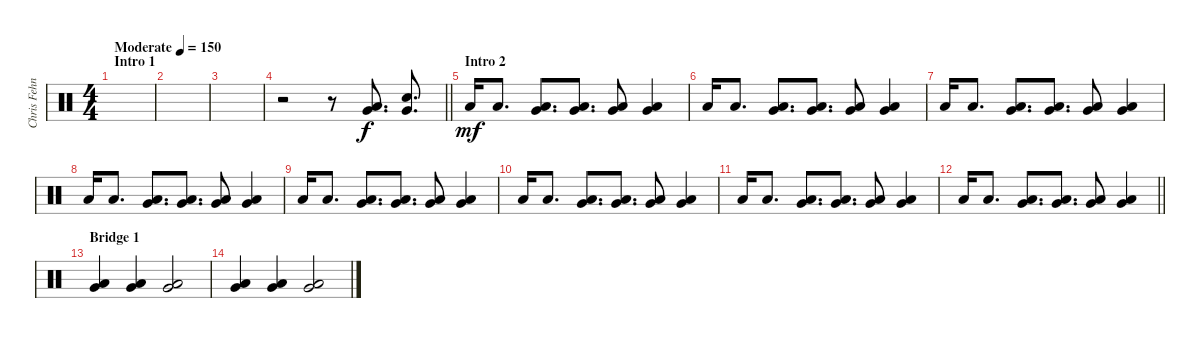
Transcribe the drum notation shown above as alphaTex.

\track ("Chris Fehn" "Chris Fehn") {instrument percussion}
\staff {score}
\articulation defaults
\ts (4 4)
\section ("" "Intro 1")
\tempo (150 "Moderate")
\clef neutral
\ks c
|
|
|
\barLineRight lightlight
r.2 r.8 ("Very Low Tom (hit)" "Low Floor Tom (hit)").8{d} ("Very Low Tom (hit)" "Snare (hit)").8{d} |
\section ("" "Intro 2")
"Low Floor Tom (hit)".16{dy mf} "Low Floor Tom (hit)".8{d} ("Very Low Tom (hit)" "Low Floor Tom (hit)").8{d} ("Very Low Tom (hit)" "Low Floor Tom (hit)").8{d} ("Very Low Tom (hit)" "Low Floor Tom (hit)").8 ("Very Low Tom (hit)" "Low Floor Tom (hit)").4 |
"Low Floor Tom (hit)".16 "Low Floor Tom (hit)".8{d} ("Very Low Tom (hit)" "Low Floor Tom (hit)").8{d} ("Very Low Tom (hit)" "Low Floor Tom (hit)").8{d} ("Very Low Tom (hit)" "Low Floor Tom (hit)").8 ("Very Low Tom (hit)" "Low Floor Tom (hit)").4 |
"Low Floor Tom (hit)".16 "Low Floor Tom (hit)".8{d} ("Very Low Tom (hit)" "Low Floor Tom (hit)").8{d} ("Very Low Tom (hit)" "Low Floor Tom (hit)").8{d} ("Very Low Tom (hit)" "Low Floor Tom (hit)").8 ("Very Low Tom (hit)" "Low Floor Tom (hit)").4 |
"Low Floor Tom (hit)".16 "Low Floor Tom (hit)".8{d} ("Very Low Tom (hit)" "Low Floor Tom (hit)").8{d} ("Very Low Tom (hit)" "Low Floor Tom (hit)").8{d} ("Very Low Tom (hit)" "Low Floor Tom (hit)").8 ("Very Low Tom (hit)" "Low Floor Tom (hit)").4 |
"Low Floor Tom (hit)".16 "Low Floor Tom (hit)".8{d} ("Very Low Tom (hit)" "Low Floor Tom (hit)").8{d} ("Very Low Tom (hit)" "Low Floor Tom (hit)").8{d} ("Very Low Tom (hit)" "Low Floor Tom (hit)").8 ("Very Low Tom (hit)" "Low Floor Tom (hit)").4 |
"Low Floor Tom (hit)".16 "Low Floor Tom (hit)".8{d} ("Very Low Tom (hit)" "Low Floor Tom (hit)").8{d} ("Very Low Tom (hit)" "Low Floor Tom (hit)").8{d} ("Very Low Tom (hit)" "Low Floor Tom (hit)").8 ("Very Low Tom (hit)" "Low Floor Tom (hit)").4 |
"Low Floor Tom (hit)".16 "Low Floor Tom (hit)".8{d} ("Very Low Tom (hit)" "Low Floor Tom (hit)").8{d} ("Very Low Tom (hit)" "Low Floor Tom (hit)").8{d} ("Very Low Tom (hit)" "Low Floor Tom (hit)").8 ("Very Low Tom (hit)" "Low Floor Tom (hit)").4 |
\barLineRight lightlight "Low Floor Tom (hit)".16 "Low Floor Tom (hit)".8{d}
("Very Low Tom (hit)" "Low Floor Tom (hit)").8{d} ("Very Low Tom (hit)" "Low Floor Tom (hit)").8{d} ("Very Low Tom (hit)" "Low Floor Tom (hit)").8 ("Very Low Tom (hit)" "Low Floor Tom (hit)").4 |
\section ("" "Bridge 1")
("Very Low Tom (hit)" "Low Floor Tom (hit)").4 ("Very Low Tom (hit)" "Low Floor Tom (hit)").4 ("Very Low Tom (hit)" "Low Floor Tom (hit)").2 |
("Very Low Tom (hit)" "Low Floor Tom (hit)").4 ("Very Low Tom (hit)" "Low Floor Tom (hit)").4 ("Very Low Tom (hit)" "Low Floor Tom (hit)").2
